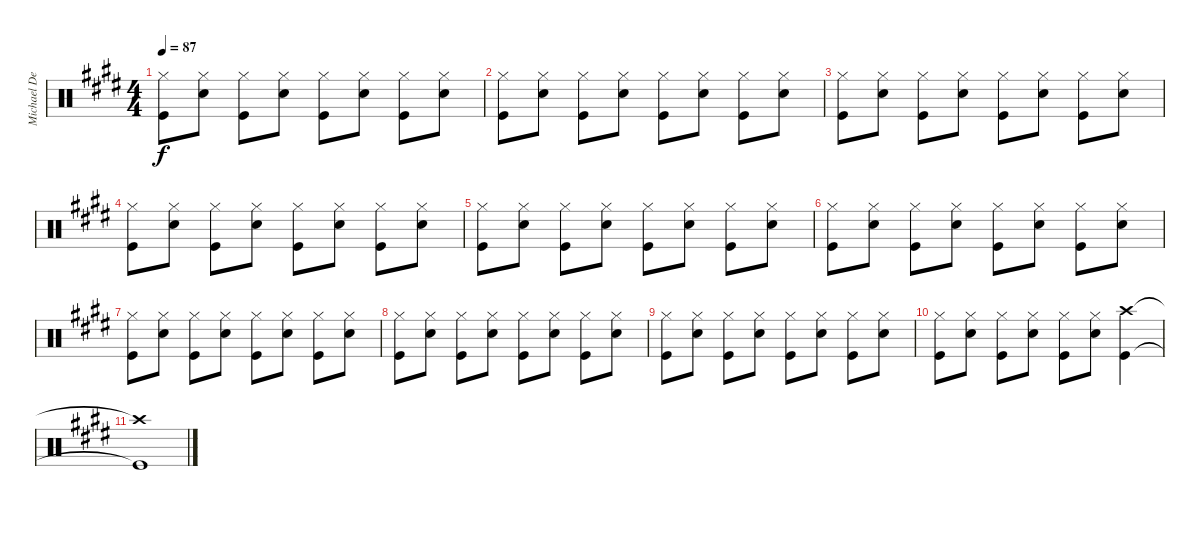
\track ("Michael Derosier Drums" "Michael De") {instrument percussion}
\staff {score}
\articulation defaults
\ts (4 4)
\tempo 87
\clef neutral
\ks e
("Hi-Hat (closed)" "Kick (hit)").8{dy f} ("Hi-Hat (closed)" "Snare (hit) 2").8 ("Hi-Hat (closed)" "Kick (hit)").8 ("Hi-Hat (closed)" "Snare (hit) 2").8 ("Hi-Hat (closed)" "Kick (hit)").8 ("Hi-Hat (closed)" "Snare (hit) 2").8 ("Hi-Hat (closed)" "Kick (hit)").8 ("Hi-Hat (closed)" "Snare (hit) 2").8 |
("Hi-Hat (closed)" "Kick (hit)").8 ("Hi-Hat (closed)" "Snare (hit) 2").8 ("Hi-Hat (closed)" "Kick (hit)").8 ("Hi-Hat (closed)" "Snare (hit) 2").8 ("Hi-Hat (closed)" "Kick (hit)").8 ("Hi-Hat (closed)" "Snare (hit) 2").8 ("Hi-Hat (closed)" "Kick (hit)").8 ("Hi-Hat (closed)" "Snare (hit) 2").8 |
("Hi-Hat (closed)" "Kick (hit)").8 ("Hi-Hat (closed)" "Snare (hit) 2").8 ("Hi-Hat (closed)" "Kick (hit)").8 ("Hi-Hat (closed)" "Snare (hit) 2").8 ("Hi-Hat (closed)" "Kick (hit)").8 ("Hi-Hat (closed)" "Snare (hit) 2").8 ("Hi-Hat (closed)" "Kick (hit)").8 ("Hi-Hat (closed)" "Snare (hit) 2").8 |
("Hi-Hat (closed)" "Kick (hit)").8 ("Hi-Hat (closed)" "Snare (hit) 2").8 ("Hi-Hat (closed)" "Kick (hit)").8 ("Hi-Hat (closed)" "Snare (hit) 2").8 ("Hi-Hat (closed)" "Kick (hit)").8 ("Hi-Hat (closed)" "Snare (hit) 2").8 ("Hi-Hat (closed)" "Kick (hit)").8 ("Hi-Hat (closed)" "Snare (hit) 2").8 |
("Hi-Hat (closed)" "Kick (hit)").8 ("Hi-Hat (closed)" "Snare (hit) 2").8 ("Hi-Hat (closed)" "Kick (hit)").8 ("Hi-Hat (closed)" "Snare (hit) 2").8 ("Hi-Hat (closed)" "Kick (hit)").8 ("Hi-Hat (closed)" "Snare (hit) 2").8 ("Hi-Hat (closed)" "Kick (hit)").8 ("Hi-Hat (closed)" "Snare (hit) 2").8 |
("Hi-Hat (closed)" "Kick (hit)").8 ("Hi-Hat (closed)" "Snare (hit) 2").8 ("Hi-Hat (closed)" "Kick (hit)").8 ("Hi-Hat (closed)" "Snare (hit) 2").8 ("Hi-Hat (closed)" "Kick (hit)").8 ("Hi-Hat (closed)" "Snare (hit) 2").8 ("Hi-Hat (closed)" "Kick (hit)").8 ("Hi-Hat (closed)" "Snare (hit) 2").8 |
("Hi-Hat (closed)" "Kick (hit)").8 ("Hi-Hat (closed)" "Snare (hit) 2").8 ("Hi-Hat (closed)" "Kick (hit)").8 ("Hi-Hat (closed)" "Snare (hit) 2").8 ("Hi-Hat (closed)" "Kick (hit)").8 ("Hi-Hat (closed)" "Snare (hit) 2").8 ("Hi-Hat (closed)" "Kick (hit)").8 ("Hi-Hat (closed)" "Snare (hit) 2").8 |
("Hi-Hat (closed)" "Kick (hit)").8 ("Hi-Hat (closed)" "Snare (hit) 2").8 ("Hi-Hat (closed)" "Kick (hit)").8 ("Hi-Hat (closed)" "Snare (hit) 2").8 ("Hi-Hat (closed)" "Kick (hit)").8 ("Hi-Hat (closed)" "Snare (hit) 2").8 ("Hi-Hat (closed)" "Kick (hit)").8 ("Hi-Hat (closed)" "Snare (hit) 2").8 |
("Hi-Hat (closed)" "Kick (hit)").8 ("Hi-Hat (closed)" "Snare (hit) 2").8 ("Hi-Hat (closed)" "Kick (hit)").8 ("Hi-Hat (closed)" "Snare (hit) 2").8 ("Hi-Hat (closed)" "Kick (hit)").8 ("Hi-Hat (closed)" "Snare (hit) 2").8 ("Hi-Hat (closed)" "Kick (hit)").8 ("Hi-Hat (closed)" "Snare (hit) 2").8 |
("Hi-Hat (closed)" "Kick (hit)").8 ("Hi-Hat (closed)" "Snare (hit) 2").8 ("Hi-Hat (closed)" "Kick (hit)").8 ("Hi-Hat (closed)" "Snare (hit) 2").8 ("Hi-Hat (closed)" "Kick (hit)").8 ("Hi-Hat (closed)" "Snare (hit) 2").8 ("Crash high (hit)" "Kick (hit)").4 |
("Crash high (hit)"{t} "Kick (hit)"{t}).1
